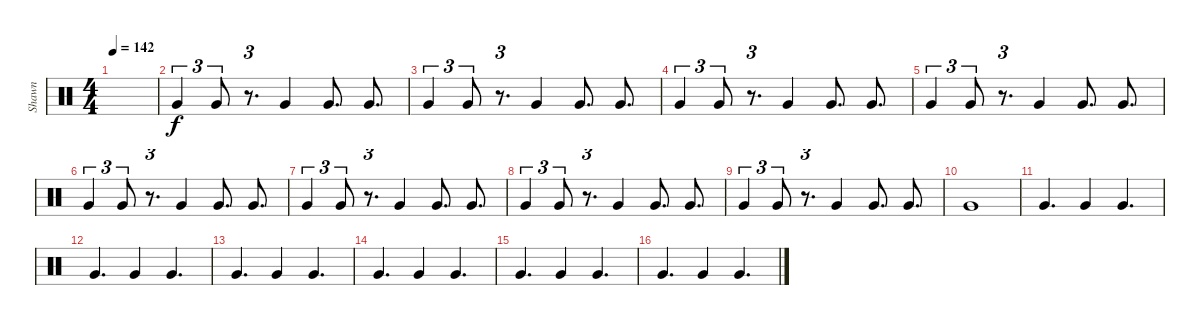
\track ("Shawn" "Shawn") {instrument percussion}
\staff {score}
\articulation defaults
\ts (4 4)
\tempo 142
\clef neutral
\ks c
|
"Very Low Tom (hit)".4{tu (3 2)} "Very Low Tom (hit)".8{tu (3 2)} r.8{d tu (3 2)} "Very Low Tom (hit)".4 "Very Low Tom (hit)".8{d} "Very Low Tom (hit)".8{d} |
"Very Low Tom (hit)".4{tu (3 2)} "Very Low Tom (hit)".8{tu (3 2)} r.8{d tu (3 2)} "Very Low Tom (hit)".4 "Very Low Tom (hit)".8{d} "Very Low Tom (hit)".8{d} |
"Very Low Tom (hit)".4{tu (3 2)} "Very Low Tom (hit)".8{tu (3 2)} r.8{d tu (3 2)} "Very Low Tom (hit)".4 "Very Low Tom (hit)".8{d} "Very Low Tom (hit)".8{d} |
"Very Low Tom (hit)".4{tu (3 2)} "Very Low Tom (hit)".8{tu (3 2)} r.8{d tu (3 2)} "Very Low Tom (hit)".4 "Very Low Tom (hit)".8{d} "Very Low Tom (hit)".8{d} |
"Very Low Tom (hit)".4{tu (3 2)} "Very Low Tom (hit)".8{tu (3 2)} r.8{d tu (3 2)} "Very Low Tom (hit)".4 "Very Low Tom (hit)".8{d} "Very Low Tom (hit)".8{d} |
"Very Low Tom (hit)".4{tu (3 2)} "Very Low Tom (hit)".8{tu (3 2)} r.8{d tu (3 2)} "Very Low Tom (hit)".4 "Very Low Tom (hit)".8{d} "Very Low Tom (hit)".8{d} |
"Very Low Tom (hit)".4{tu (3 2)} "Very Low Tom (hit)".8{tu (3 2)} r.8{d tu (3 2)} "Very Low Tom (hit)".4 "Very Low Tom (hit)".8{d} "Very Low Tom (hit)".8{d} |
"Very Low Tom (hit)".4{tu (3 2)} "Very Low Tom (hit)".8{tu (3 2)} r.8{d tu (3 2)} "Very Low Tom (hit)".4 "Very Low Tom (hit)".8{d} "Very Low Tom (hit)".8{d} |
"Very Low Tom (hit)".1 |
"Very Low Tom (hit)".4{d} "Very Low Tom (hit)".4 "Very Low Tom (hit)".4{d} |
"Very Low Tom (hit)".4{d} "Very Low Tom (hit)".4 "Very Low Tom (hit)".4{d} |
"Very Low Tom (hit)".4{d} "Very Low Tom (hit)".4 "Very Low Tom (hit)".4{d} |
"Very Low Tom (hit)".4{d} "Very Low Tom (hit)".4 "Very Low Tom (hit)".4{d} |
"Very Low Tom (hit)".4{d} "Very Low Tom (hit)".4 "Very Low Tom (hit)".4{d} |
"Very Low Tom (hit)".4{d} "Very Low Tom (hit)".4 "Very Low Tom (hit)".4{d}
